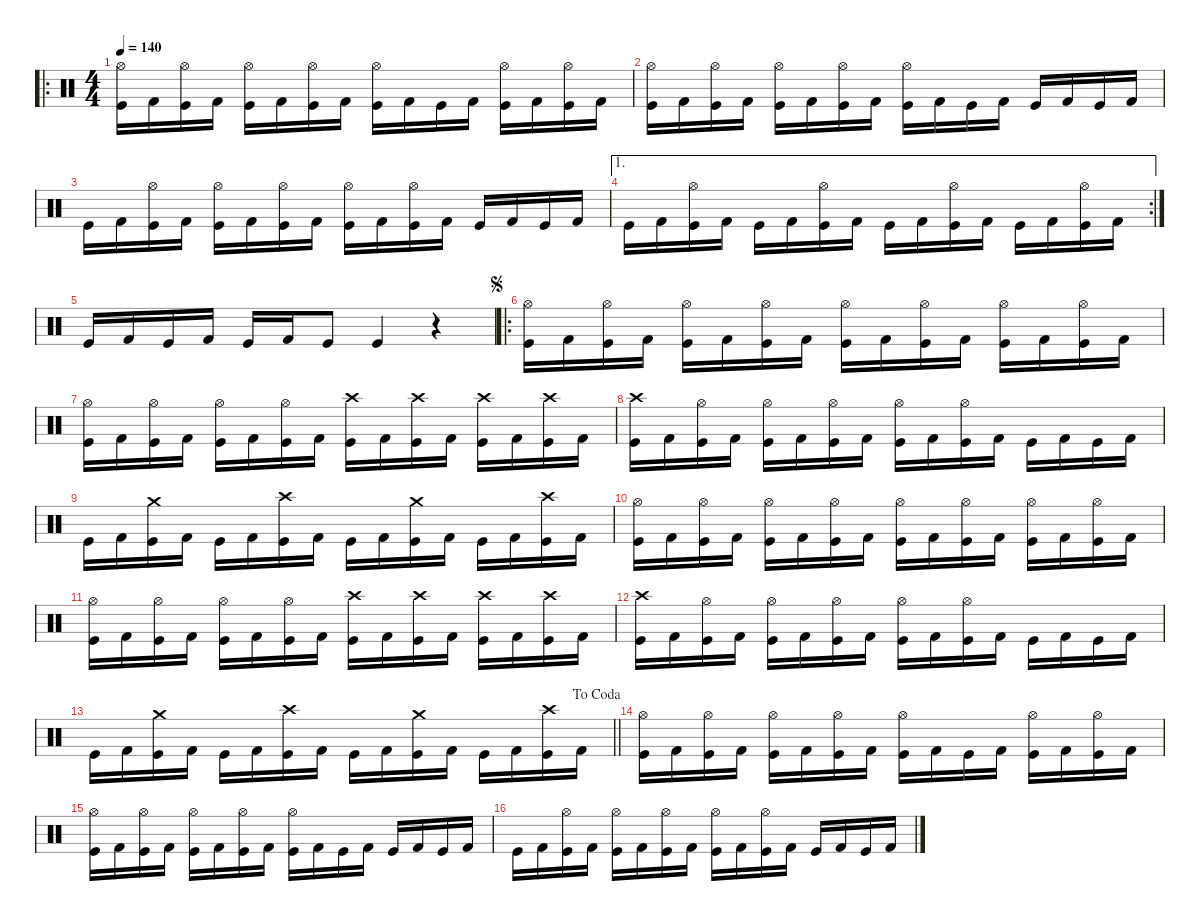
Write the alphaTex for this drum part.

\defaultSystemsLayout 4
\hideDynamics
\bracketExtendMode nobrackets
\singleTrackTrackNamePolicy hidden
\multiTrackTrackNamePolicy hidden
\firstSystemTrackNameMode fullname
\firstSystemTrackNameOrientation horizontal
\otherSystemsTrackNameOrientation horizontal
\track ("Drumkit" "drm.") {mute instrument percussion}
\staff {score}
\articulation defaults
\ro
\ts (4 4)
\beaming (8 2 2 2 2)
\tempo 140
\clef neutral
\ks c
("Kick (hit)" "Hi-Hat (open)").16{dy mf beam Down} "Kick (hit) 2".16{beam Down} ("Kick (hit)" "Hi-Hat (open)").16{beam Down} "Kick (hit) 2".16{beam Down} ("Kick (hit)" "Hi-Hat (open)").16{beam Down} "Kick (hit) 2".16{beam Down} ("Kick (hit)" "Hi-Hat (open)").16{beam Down} "Kick (hit) 2".16{beam Down} ("Kick (hit)" "Hi-Hat (open)").16{beam Down} "Kick (hit) 2".16{beam Down} "Kick (hit)".16{beam Down} "Kick (hit) 2".16{beam Down} ("Kick (hit)" "Hi-Hat (open)").16{beam Down} "Kick (hit) 2".16{beam Down} ("Kick (hit)" "Hi-Hat (open)").16{beam Down} "Kick (hit) 2".16{beam Down} |
("Kick (hit)" "Hi-Hat (open)").16{beam Down} "Kick (hit) 2".16{beam Down} ("Kick (hit)" "Hi-Hat (open)").16{beam Down} "Kick (hit) 2".16{beam Down} ("Kick (hit)" "Hi-Hat (open)").16{beam Down} "Kick (hit) 2".16{beam Down} ("Kick (hit)" "Hi-Hat (open)").16{beam Down} "Kick (hit) 2".16{beam Down} ("Kick (hit)" "Hi-Hat (open)").16{beam Down} "Kick (hit) 2".16{beam Down} "Kick (hit)".16{beam Down} "Kick (hit) 2".16{beam Down} "Kick (hit)".16{beam Up} "Kick (hit) 2".16{beam Up} "Kick (hit)".16{beam Up} "Kick (hit) 2".16{beam Up} |
"Kick (hit)".16{beam Down} "Kick (hit) 2".16{beam Down} ("Kick (hit)" "Hi-Hat (open)").16{beam Down} "Kick (hit) 2".16{beam Down} ("Kick (hit)" "Hi-Hat (open)").16{beam Down} "Kick (hit) 2".16{beam Down} ("Kick (hit)" "Hi-Hat (open)").16{beam Down} "Kick (hit) 2".16{beam Down} ("Kick (hit)" "Hi-Hat (open)").16{beam Down} "Kick (hit) 2".16{beam Down} ("Kick (hit)" "Hi-Hat (open)").16{beam Down} "Kick (hit) 2".16{beam Down} "Kick (hit)".16{beam Up} "Kick (hit) 2".16{beam Up} "Kick (hit)".16{beam Up} "Kick (hit) 2".16{beam Up} |
\ae 1
\rc 2 "Kick (hit)".16{beam Down} "Kick (hit) 2".16{beam Down}
("Kick (hit)" "Hi-Hat (open)").16{beam Down} "Kick (hit) 2".16{beam Down} "Kick (hit)".16{beam Down} "Kick (hit) 2".16{beam Down} ("Kick (hit)" "Hi-Hat (open)").16{beam Down} "Kick (hit) 2".16{beam Down} "Kick (hit)".16{beam Down} "Kick (hit) 2".16{beam Down} ("Kick (hit)" "Hi-Hat (open)").16{beam Down} "Kick (hit) 2".16{beam Down} "Kick (hit)".16{beam Down} "Kick (hit) 2".16{beam Down} ("Kick (hit)" "Hi-Hat (open)").16{beam Down} "Kick (hit) 2".16{beam Down} |
"Kick (hit)".16{beam Up} "Kick (hit) 2".16{beam Up} "Kick (hit)".16{beam Up} "Kick (hit) 2".16{beam Up} "Kick (hit)".16{beam Up} "Kick (hit) 2".16{beam Up} "Kick (hit)".8{beam Up} "Kick (hit)".4{beam Up} r.4{beam Up} |
\ro
\jump segno
("Kick (hit)" "Hi-Hat (open)").16{beam Down} "Kick (hit) 2".16{beam Down} ("Kick (hit)" "Hi-Hat (open)").16{beam Down} "Kick (hit) 2".16{beam Down} ("Kick (hit)" "Hi-Hat (open)").16{beam Down} "Kick (hit) 2".16{beam Down} ("Kick (hit)" "Hi-Hat (open)").16{beam Down} "Kick (hit) 2".16{beam Down} ("Kick (hit)" "Hi-Hat (open)").16{beam Down} "Kick (hit) 2".16{beam Down} ("Kick (hit)" "Hi-Hat (open)").16{beam Down} "Kick (hit) 2".16{beam Down} ("Kick (hit)" "Hi-Hat (open)").16{beam Down} "Kick (hit) 2".16{beam Down} ("Kick (hit)" "Hi-Hat (open)").16{beam Down} "Kick (hit) 2".16{beam Down} |
("Kick (hit)" "Hi-Hat (open)").16{beam Down} "Kick (hit) 2".16{beam Down} ("Kick (hit)" "Hi-Hat (open)").16{beam Down} "Kick (hit) 2".16{beam Down} ("Kick (hit)" "Hi-Hat (open)").16{beam Down} "Kick (hit) 2".16{beam Down} ("Kick (hit)" "Hi-Hat (open)").16{beam Down} "Kick (hit) 2".16{beam Down} ("Kick (hit)" "Crash high (hit)").16{beam Down} "Kick (hit) 2".16{beam Down} ("Kick (hit)" "Crash high (hit)").16{beam Down} "Kick (hit) 2".16{beam Down} ("Kick (hit)" "Crash high (hit)").16{beam Down} "Kick (hit) 2".16{beam Down} ("Kick (hit)" "Crash high (hit)").16{beam Down} "Kick (hit) 2".16{beam Down} |
("Kick (hit)" "Crash high (hit)").16{beam Down} "Kick (hit) 2".16{beam Down} ("Kick (hit)" "Hi-Hat (open)").16{beam Down} "Kick (hit) 2".16{beam Down} ("Kick (hit)" "Hi-Hat (open)").16{beam Down} "Kick (hit) 2".16{beam Down} ("Kick (hit)" "Hi-Hat (open)").16{beam Down} "Kick (hit) 2".16{beam Down} ("Kick (hit)" "Hi-Hat (open)").16{beam Down} "Kick (hit) 2".16{beam Down} ("Kick (hit)" "Hi-Hat (open)").16{beam Down} "Kick (hit) 2".16{beam Down} "Kick (hit)".16{beam Down} "Kick (hit) 2".16{beam Down} "Kick (hit)".16{beam Down} "Kick (hit) 2".16{beam Down} |
"Kick (hit)".16{beam Down} "Kick (hit) 2".16{beam Down} ("Kick (hit)" "Crash medium (hit)").16{beam Down} "Kick (hit) 2".16{beam Down} "Kick (hit)".16{beam Down} "Kick (hit) 2".16{beam Down} ("Kick (hit)" "Crash high (hit)").16{beam Down} "Kick (hit) 2".16{beam Down} "Kick (hit)".16{beam Down} "Kick (hit) 2".16{beam Down} ("Kick (hit)" "Crash medium (hit)").16{beam Down} "Kick (hit) 2".16{beam Down} "Kick (hit)".16{beam Down} "Kick (hit) 2".16{beam Down} ("Kick (hit)" "Crash high (hit)").16{beam Down} "Kick (hit) 2".16{beam Down} |
("Kick (hit)" "Hi-Hat (open)").16{beam Down} "Kick (hit) 2".16{beam Down} ("Kick (hit)" "Hi-Hat (open)").16{beam Down} "Kick (hit) 2".16{beam Down} ("Kick (hit)" "Hi-Hat (open)").16{beam Down} "Kick (hit) 2".16{beam Down} ("Kick (hit)" "Hi-Hat (open)").16{beam Down} "Kick (hit) 2".16{beam Down} ("Kick (hit)" "Hi-Hat (open)").16{beam Down} "Kick (hit) 2".16{beam Down} ("Kick (hit)" "Hi-Hat (open)").16{beam Down} "Kick (hit) 2".16{beam Down} ("Kick (hit)" "Hi-Hat (open)").16{beam Down} "Kick (hit) 2".16{beam Down} ("Kick (hit)" "Hi-Hat (open)").16{beam Down} "Kick (hit) 2".16{beam Down} |
("Kick (hit)" "Hi-Hat (open)").16{beam Down} "Kick (hit) 2".16{beam Down} ("Kick (hit)" "Hi-Hat (open)").16{beam Down} "Kick (hit) 2".16{beam Down} ("Kick (hit)" "Hi-Hat (open)").16{beam Down} "Kick (hit) 2".16{beam Down} ("Kick (hit)" "Hi-Hat (open)").16{beam Down} "Kick (hit) 2".16{beam Down} ("Kick (hit)" "Crash high (hit)").16{beam Down} "Kick (hit) 2".16{beam Down} ("Kick (hit)" "Crash high (hit)").16{beam Down} "Kick (hit) 2".16{beam Down} ("Kick (hit)" "Crash high (hit)").16{beam Down} "Kick (hit) 2".16{beam Down} ("Kick (hit)" "Crash high (hit)").16{beam Down} "Kick (hit) 2".16{beam Down} |
("Kick (hit)" "Crash high (hit)").16{beam Down} "Kick (hit) 2".16{beam Down} ("Kick (hit)" "Hi-Hat (open)").16{beam Down} "Kick (hit) 2".16{beam Down} ("Kick (hit)" "Hi-Hat (open)").16{beam Down} "Kick (hit) 2".16{beam Down} ("Kick (hit)" "Hi-Hat (open)").16{beam Down} "Kick (hit) 2".16{beam Down} ("Kick (hit)" "Hi-Hat (open)").16{beam Down} "Kick (hit) 2".16{beam Down} ("Kick (hit)" "Hi-Hat (open)").16{beam Down} "Kick (hit) 2".16{beam Down} "Kick (hit)".16{beam Down} "Kick (hit) 2".16{beam Down} "Kick (hit)".16{beam Down} "Kick (hit) 2".16{beam Down} |
\jump dacoda
\barLineRight lightlight "Kick (hit)".16{beam Down} "Kick (hit) 2".16{beam Down}
("Kick (hit)" "Crash medium (hit)").16{beam Down} "Kick (hit) 2".16{beam Down} "Kick (hit)".16{beam Down} "Kick (hit) 2".16{beam Down} ("Kick (hit)" "Crash high (hit)").16{beam Down} "Kick (hit) 2".16{beam Down} "Kick (hit)".16{beam Down} "Kick (hit) 2".16{beam Down} ("Kick (hit)" "Crash medium (hit)").16{beam Down} "Kick (hit) 2".16{beam Down} "Kick (hit)".16{beam Down} "Kick (hit) 2".16{beam Down} ("Kick (hit)" "Crash high (hit)").16{beam Down} "Kick (hit) 2".16{beam Down} |
("Kick (hit)" "Hi-Hat (open)").16{beam Down} "Kick (hit) 2".16{beam Down} ("Kick (hit)" "Hi-Hat (open)").16{beam Down} "Kick (hit) 2".16{beam Down} ("Kick (hit)" "Hi-Hat (open)").16{beam Down} "Kick (hit) 2".16{beam Down} ("Kick (hit)" "Hi-Hat (open)").16{beam Down} "Kick (hit) 2".16{beam Down} ("Kick (hit)" "Hi-Hat (open)").16{beam Down} "Kick (hit) 2".16{beam Down} "Kick (hit)".16{beam Down} "Kick (hit) 2".16{beam Down} ("Kick (hit)" "Hi-Hat (open)").16{beam Down} "Kick (hit) 2".16{beam Down} ("Kick (hit)" "Hi-Hat (open)").16{beam Down} "Kick (hit) 2".16{beam Down} |
("Kick (hit)" "Hi-Hat (open)").16{beam Down} "Kick (hit) 2".16{beam Down} ("Kick (hit)" "Hi-Hat (open)").16{beam Down} "Kick (hit) 2".16{beam Down} ("Kick (hit)" "Hi-Hat (open)").16{beam Down} "Kick (hit) 2".16{beam Down} ("Kick (hit)" "Hi-Hat (open)").16{beam Down} "Kick (hit) 2".16{beam Down} ("Kick (hit)" "Hi-Hat (open)").16{beam Down} "Kick (hit) 2".16{beam Down} "Kick (hit)".16{beam Down} "Kick (hit) 2".16{beam Down} "Kick (hit)".16{beam Up} "Kick (hit) 2".16{beam Up} "Kick (hit)".16{beam Up} "Kick (hit) 2".16{beam Up} |
"Kick (hit)".16{beam Down} "Kick (hit) 2".16{beam Down} ("Kick (hit)" "Hi-Hat (open)").16{beam Down} "Kick (hit) 2".16{beam Down} ("Kick (hit)" "Hi-Hat (open)").16{beam Down} "Kick (hit) 2".16{beam Down} ("Kick (hit)" "Hi-Hat (open)").16{beam Down} "Kick (hit) 2".16{beam Down} ("Kick (hit)" "Hi-Hat (open)").16{beam Down} "Kick (hit) 2".16{beam Down} ("Kick (hit)" "Hi-Hat (open)").16{beam Down} "Kick (hit) 2".16{beam Down} "Kick (hit)".16{beam Up} "Kick (hit) 2".16{beam Up} "Kick (hit)".16{beam Up} "Kick (hit) 2".16{beam Up}
